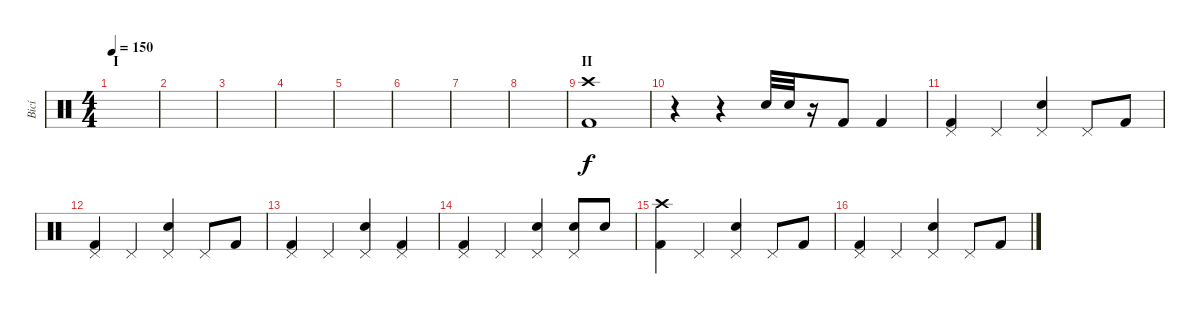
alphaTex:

\track ("Bicí" "Bicí") {instrument percussion}
\staff {score}
\articulation defaults
\ts (4 4)
\section ("" "I")
\tempo 150
\clef neutral
\ks c
|
|
|
|
|
|
|
|
\section ("" "II")
("Crash high (hit)" "Kick (hit) 2").1 |
r.4 r.4 "Electric Snare (hit)".32 "Electric Snare (hit)".32 r.16 "Kick (hit) 2".8 "Kick (hit) 2".4 |
("Pedal Hi-Hat (hit)" "Kick (hit) 2").4 "Pedal Hi-Hat (hit)".4 ("Pedal Hi-Hat (hit)" "Electric Snare (hit)").4 "Pedal Hi-Hat (hit)".8 "Kick (hit) 2".8 |
("Pedal Hi-Hat (hit)" "Kick (hit) 2").4 "Pedal Hi-Hat (hit)".4 ("Pedal Hi-Hat (hit)" "Electric Snare (hit)").4 "Pedal Hi-Hat (hit)".8 "Kick (hit) 2".8 |
("Pedal Hi-Hat (hit)" "Kick (hit) 2").4 "Pedal Hi-Hat (hit)".4 ("Pedal Hi-Hat (hit)" "Electric Snare (hit)").4 ("Pedal Hi-Hat (hit)" "Kick (hit) 2").4 |
("Pedal Hi-Hat (hit)" "Kick (hit) 2").4 "Pedal Hi-Hat (hit)".4 ("Pedal Hi-Hat (hit)" "Electric Snare (hit)").4 ("Pedal Hi-Hat (hit)" "Electric Snare (hit)").8 "Electric Snare (hit)".8 |
("Crash high (hit)" "Kick (hit) 2").4 "Pedal Hi-Hat (hit)".4 ("Pedal Hi-Hat (hit)" "Electric Snare (hit)").4 "Pedal Hi-Hat (hit)".8 "Kick (hit) 2".8 |
("Pedal Hi-Hat (hit)" "Kick (hit) 2").4 "Pedal Hi-Hat (hit)".4 ("Pedal Hi-Hat (hit)" "Electric Snare (hit)").4 "Pedal Hi-Hat (hit)".8 "Kick (hit) 2".8
